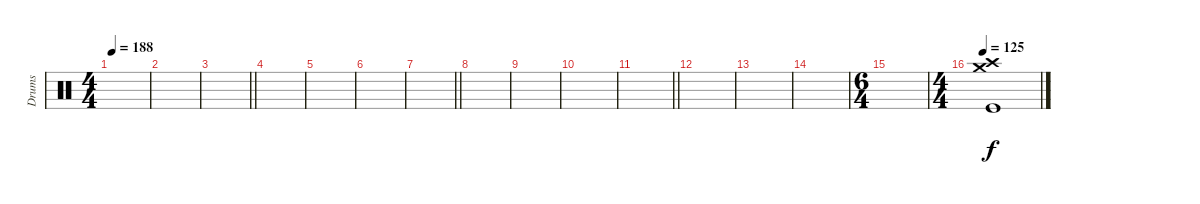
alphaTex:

\track ("Drums" "Drums") {instrument percussion}
\staff
\articulation defaults
\ts (4 4)
\tempo 188
\clef neutral
\ks c
|
|
\barLineRight lightlight
|
|
|
|
\barLineRight lightlight
|
|
|
|
\barLineRight lightlight
|
|
|
|
\ts (6 4)
|
\ts (4 4)
\tempo 125
("Crash high (hit)" "Crash medium (hit)" "Kick (hit)").1
